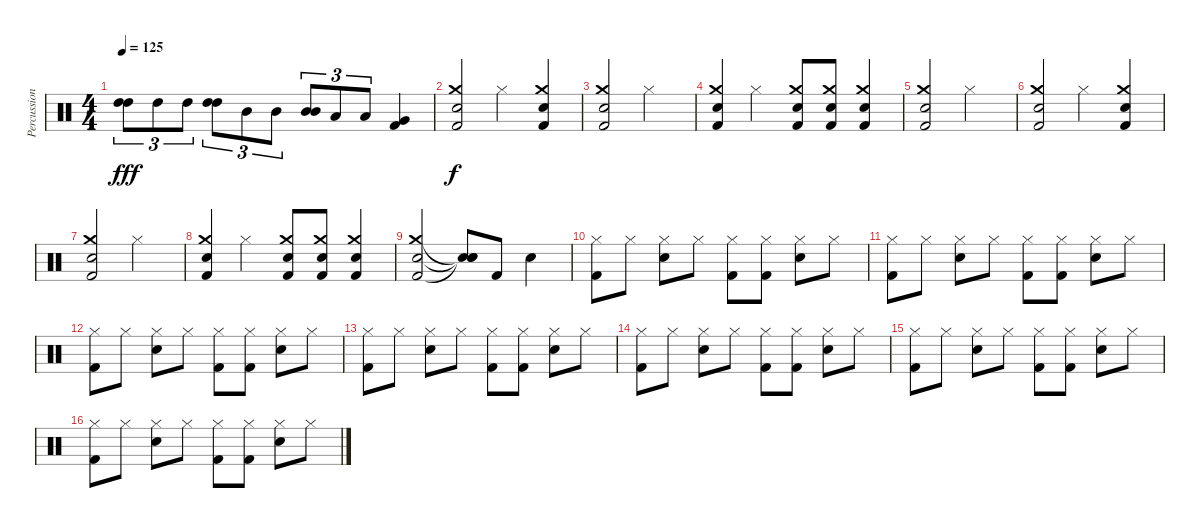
\track ("Percussion" "Percussion") {instrument percussion}
\staff {score}
\articulation defaults
\ts (4 4)
\tempo 125
\clef neutral
\ks c
("High Tom (hit)" "High Tom (hit)").8{tu (3 2) dy fff} "High Tom (hit)".8{tu (3 2)} "High Tom (hit)".8{tu (3 2)} ("High Tom (hit)" "High Tom (hit)").8{tu (3 2)} "Mid Tom (hit)".8{tu (3 2)} "Mid Tom (hit)".8{tu (3 2)} ("Mid Tom (hit)" "Mid Tom (hit)").8{tu (3 2)} "Low Tom (hit)".8{tu (3 2)} "Low Tom (hit)".8{tu (3 2)} ("Very Low Tom (hit)" "Kick (hit) 2").4 |
("Crash medium (hit)" "Snare (hit) 2" "Kick (hit) 2").2{dy f} "Hi-Hat (closed)".4 ("Crash medium (hit)" "Snare (hit) 2" "Kick (hit) 2").4 |
("Crash medium (hit)" "Snare (hit) 2" "Kick (hit) 2").2 "Hi-Hat (closed)".2 |
("Crash medium (hit)" "Snare (hit) 2" "Kick (hit) 2").4 "Hi-Hat (closed)".4 ("Crash medium (hit)" "Snare (hit) 2" "Kick (hit) 2").8 ("Crash medium (hit)" "Snare (hit) 2" "Kick (hit) 2").8 ("Crash medium (hit)" "Snare (hit) 2" "Kick (hit) 2").4 |
("Crash medium (hit)" "Snare (hit) 2" "Kick (hit) 2").2 "Hi-Hat (closed)".2 |
("Crash medium (hit)" "Snare (hit) 2" "Kick (hit) 2").2 "Hi-Hat (closed)".4 ("Crash medium (hit)" "Snare (hit) 2" "Kick (hit) 2").4 |
("Crash medium (hit)" "Snare (hit) 2" "Kick (hit) 2").2 "Hi-Hat (closed)".2 |
("Crash medium (hit)" "Snare (hit) 2" "Kick (hit) 2").4 "Hi-Hat (closed)".4 ("Crash medium (hit)" "Snare (hit) 2" "Kick (hit) 2").8 ("Crash medium (hit)" "Snare (hit) 2" "Kick (hit) 2").8 ("Crash medium (hit)" "Snare (hit) 2" "Kick (hit) 2").4 |
("Crash medium (hit)" "Snare (hit) 2" "Kick (hit) 2").2 ("Snare (hit)"{t} "Snare (hit)"{t} "Snare (hit)"{t}).8 "Kick (hit) 2".8 "Snare (hit) 2".4 |
("Hi-Hat (closed)" "Kick (hit) 2").8 "Hi-Hat (closed)".8 ("Hi-Hat (closed)" "Snare (hit) 2").8 "Hi-Hat (closed)".8 ("Hi-Hat (closed)" "Kick (hit) 2").8 ("Hi-Hat (closed)" "Kick (hit) 2").8 ("Hi-Hat (closed)" "Snare (hit) 2").8 "Hi-Hat (closed)".8 |
("Hi-Hat (closed)" "Kick (hit) 2").8 "Hi-Hat (closed)".8 ("Hi-Hat (closed)" "Snare (hit) 2").8 "Hi-Hat (closed)".8 ("Hi-Hat (closed)" "Kick (hit) 2").8 ("Hi-Hat (closed)" "Kick (hit) 2").8 ("Hi-Hat (closed)" "Snare (hit) 2").8 "Hi-Hat (closed)".8 |
("Hi-Hat (closed)" "Kick (hit) 2").8 "Hi-Hat (closed)".8 ("Hi-Hat (closed)" "Snare (hit) 2").8 "Hi-Hat (closed)".8 ("Hi-Hat (closed)" "Kick (hit) 2").8 ("Hi-Hat (closed)" "Kick (hit) 2").8 ("Hi-Hat (closed)" "Snare (hit) 2").8 "Hi-Hat (closed)".8 |
("Hi-Hat (closed)" "Kick (hit) 2").8 "Hi-Hat (closed)".8 ("Hi-Hat (closed)" "Snare (hit) 2").8 "Hi-Hat (closed)".8 ("Hi-Hat (closed)" "Kick (hit) 2").8 ("Hi-Hat (closed)" "Kick (hit) 2").8 ("Hi-Hat (closed)" "Snare (hit) 2").8 "Hi-Hat (closed)".8 |
("Hi-Hat (closed)" "Kick (hit) 2").8 "Hi-Hat (closed)".8 ("Hi-Hat (closed)" "Snare (hit) 2").8 "Hi-Hat (closed)".8 ("Hi-Hat (closed)" "Kick (hit) 2").8 ("Hi-Hat (closed)" "Kick (hit) 2").8 ("Hi-Hat (closed)" "Snare (hit) 2").8 "Hi-Hat (closed)".8 |
("Hi-Hat (closed)" "Kick (hit) 2").8 "Hi-Hat (closed)".8 ("Hi-Hat (closed)" "Snare (hit) 2").8 "Hi-Hat (closed)".8 ("Hi-Hat (closed)" "Kick (hit) 2").8 ("Hi-Hat (closed)" "Kick (hit) 2").8 ("Hi-Hat (closed)" "Snare (hit) 2").8 "Hi-Hat (closed)".8 |
("Hi-Hat (closed)" "Kick (hit) 2").8 "Hi-Hat (closed)".8 ("Hi-Hat (closed)" "Snare (hit) 2").8 "Hi-Hat (closed)".8 ("Hi-Hat (closed)" "Kick (hit) 2").8 ("Hi-Hat (closed)" "Kick (hit) 2").8 ("Hi-Hat (closed)" "Snare (hit) 2").8 "Hi-Hat (closed)".8
